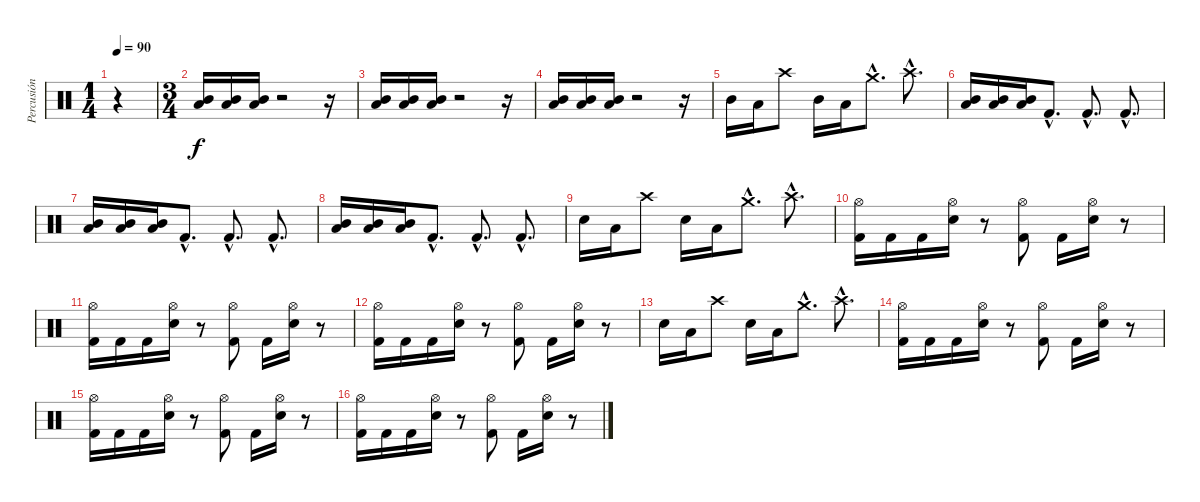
\track ("Percusión" "Percusión") {instrument percussion}
\staff {score}
\articulation defaults
\ts (1 4)
\tempo 90
\clef neutral
\ks c
r.4{dy f} |
\ts (3 4)
("Low Tom (hit)" "Mid Tom (hit)").16 ("Low Tom (hit)" "Mid Tom (hit)").16 ("Low Tom (hit)" "Mid Tom (hit)").16 r.2 r.16 |
("Low Tom (hit)" "Mid Tom (hit)").16 ("Low Tom (hit)" "Mid Tom (hit)").16 ("Low Tom (hit)" "Mid Tom (hit)").16 r.2 r.16 |
("Low Tom (hit)" "Mid Tom (hit)").16 ("Low Tom (hit)" "Mid Tom (hit)").16 ("Low Tom (hit)" "Mid Tom (hit)").16 r.2 r.16 |
"Mid Tom (hit)".16 "Low Tom (hit)".16 "Crash high (hit)".8 "Mid Tom (hit)".16 "Low Tom (hit)".16 "Crash medium (hit)"{hac}.8{d} "Crash high (hit)"{hac}.8{d} |
("Low Tom (hit)" "Mid Tom (hit)").16 ("Low Tom (hit)" "Mid Tom (hit)").16 ("Low Tom (hit)" "Mid Tom (hit)").16 "Kick (hit) 2"{hac}.8{d} "Kick (hit) 2"{hac}.8{d} "Kick (hit) 2"{hac}.8{d} |
("Low Tom (hit)" "Mid Tom (hit)").16 ("Low Tom (hit)" "Mid Tom (hit)").16 ("Low Tom (hit)" "Mid Tom (hit)").16 "Kick (hit) 2"{hac}.8{d} "Kick (hit) 2"{hac}.8{d} "Kick (hit) 2"{hac}.8{d} |
("Low Tom (hit)" "Mid Tom (hit)").16 ("Low Tom (hit)" "Mid Tom (hit)").16 ("Low Tom (hit)" "Mid Tom (hit)").16 "Kick (hit) 2"{hac}.8{d} "Kick (hit) 2"{hac}.8{d} "Kick (hit) 2"{hac}.8{d} |
"Electric Snare (hit)".16 "Low Tom (hit)".16 "Crash high (hit)".8 "Electric Snare (hit)".16 "Low Tom (hit)".16 "Crash medium (hit)"{hac}.8{d} "Crash high (hit)"{hac}.8{d} |
("Hi-Hat (open)" "Kick (hit) 2").16 "Kick (hit) 2".16 "Kick (hit) 2".16 ("Hi-Hat (open)" "Electric Snare (hit)").16 r.8 ("Hi-Hat (open)" "Kick (hit) 2").8 "Kick (hit) 2".16 ("Hi-Hat (open)" "Electric Snare (hit)").16 r.8 |
("Hi-Hat (open)" "Kick (hit) 2").16 "Kick (hit) 2".16 "Kick (hit) 2".16 ("Hi-Hat (open)" "Electric Snare (hit)").16 r.8 ("Hi-Hat (open)" "Kick (hit) 2").8 "Kick (hit) 2".16 ("Hi-Hat (open)" "Electric Snare (hit)").16 r.8 |
("Hi-Hat (open)" "Kick (hit) 2").16 "Kick (hit) 2".16 "Kick (hit) 2".16 ("Hi-Hat (open)" "Electric Snare (hit)").16 r.8 ("Hi-Hat (open)" "Kick (hit) 2").8 "Kick (hit) 2".16 ("Hi-Hat (open)" "Electric Snare (hit)").16 r.8 |
"Electric Snare (hit)".16 "Low Tom (hit)".16 "Crash high (hit)".8 "Electric Snare (hit)".16 "Low Tom (hit)".16 "Crash medium (hit)"{hac}.8{d} "Crash high (hit)"{hac}.8{d} |
("Hi-Hat (open)" "Kick (hit) 2").16 "Kick (hit) 2".16 "Kick (hit) 2".16 ("Hi-Hat (open)" "Electric Snare (hit)").16 r.8 ("Hi-Hat (open)" "Kick (hit) 2").8 "Kick (hit) 2".16 ("Hi-Hat (open)" "Electric Snare (hit)").16 r.8 |
("Hi-Hat (open)" "Kick (hit) 2").16 "Kick (hit) 2".16 "Kick (hit) 2".16 ("Hi-Hat (open)" "Electric Snare (hit)").16 r.8 ("Hi-Hat (open)" "Kick (hit) 2").8 "Kick (hit) 2".16 ("Hi-Hat (open)" "Electric Snare (hit)").16 r.8 |
("Hi-Hat (open)" "Kick (hit) 2").16 "Kick (hit) 2".16 "Kick (hit) 2".16 ("Hi-Hat (open)" "Electric Snare (hit)").16 r.8 ("Hi-Hat (open)" "Kick (hit) 2").8 "Kick (hit) 2".16 ("Hi-Hat (open)" "Electric Snare (hit)").16 r.8
